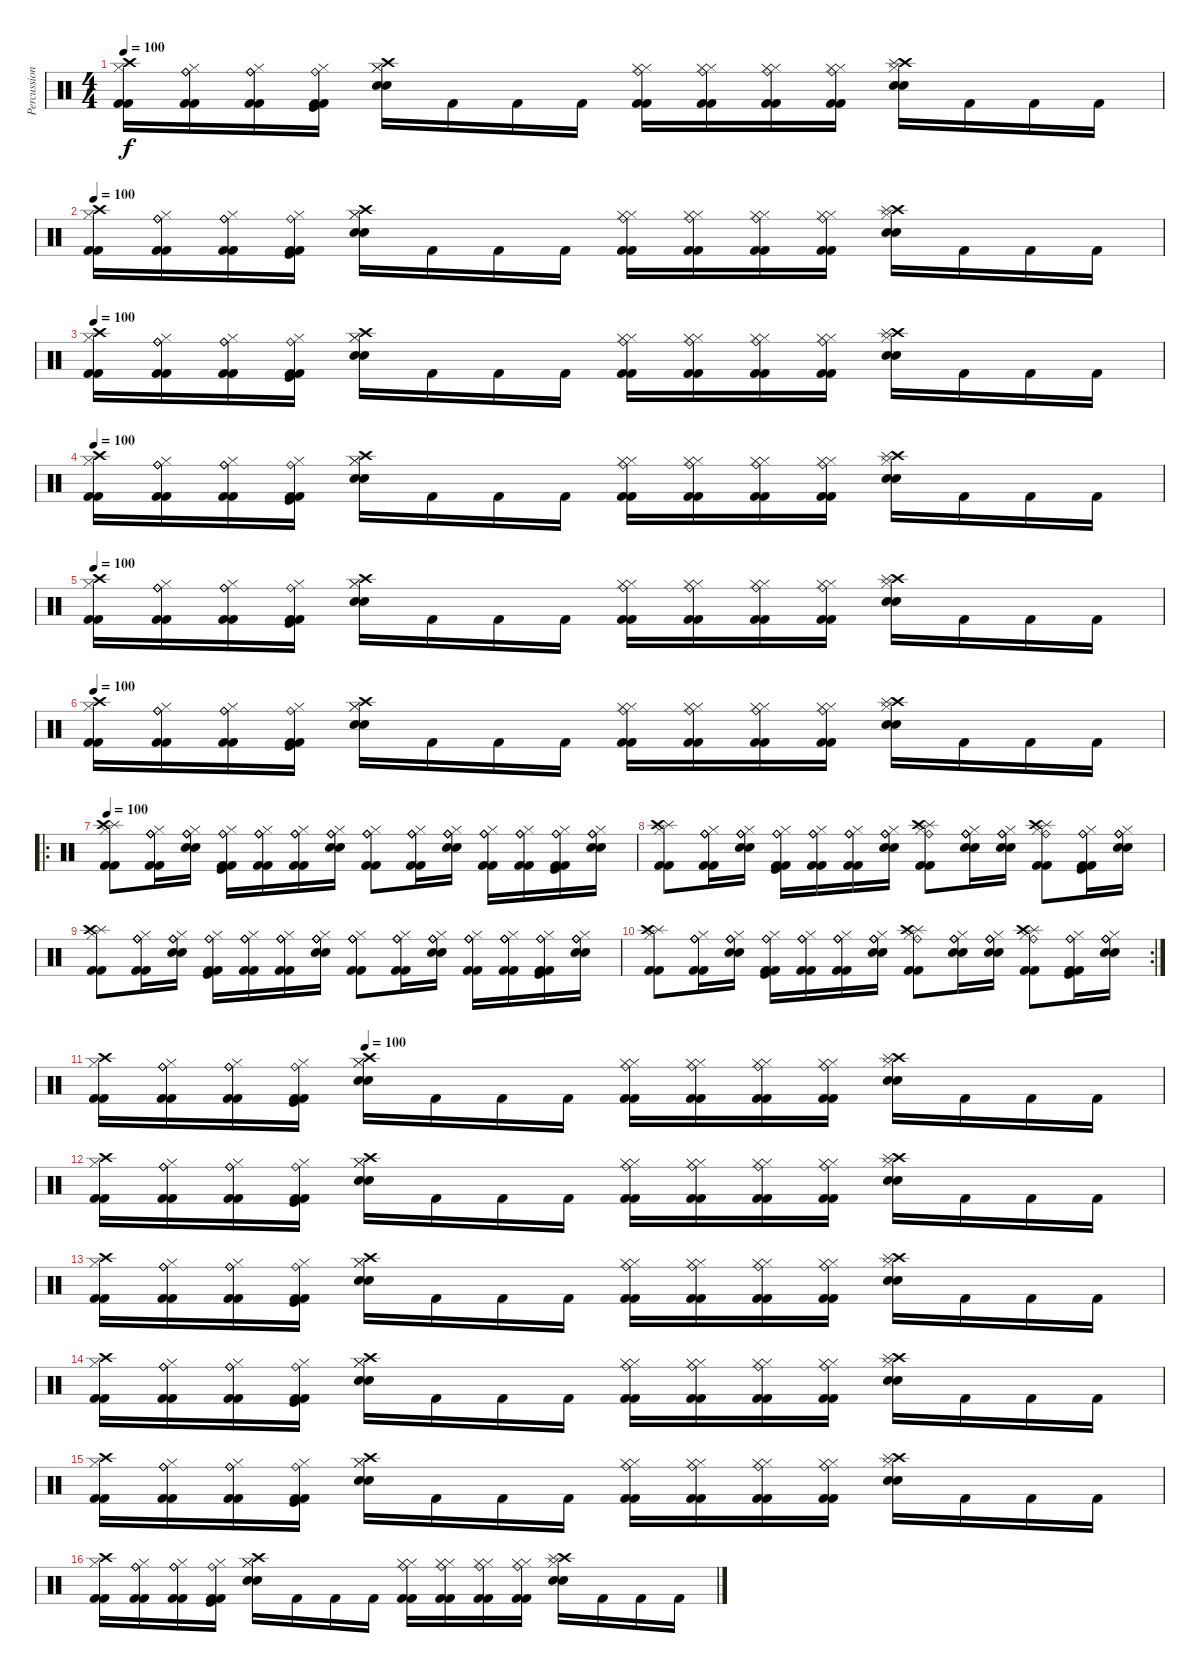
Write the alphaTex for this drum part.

\track ("Percussion" "Percussion") {instrument percussion}
\staff {score}
\articulation defaults
\ts (4 4)
\tempo 100
\clef neutral
\ks c
("Crash high (hit)" "Hi-Hat (closed)" "Kick (hit) 2" "Kick (hit) 2").16{dy f} ("Ride (bell)" "Ride (bell)" "Hi-Hat (closed)" "Kick (hit) 2" "Kick (hit) 2").16 ("Ride (bell)" "Ride (bell)" "Hi-Hat (closed)" "Kick (hit) 2" "Kick (hit) 2").16 ("Ride (bell)" "Kick (hit)" "Hi-Hat (closed)" "Kick (hit) 2" "Kick (hit) 2").16 ("Crash high (hit)" "Hi-Hat (closed)" "Hi-Hat (closed)" "Snare (hit) 2" "Snare (hit) 2").16 "Kick (hit) 2".16 "Kick (hit) 2".16 "Kick (hit) 2".16 ("Ride (bell)" "Hi-Hat (closed)" "Hi-Hat (closed)" "Kick (hit) 2" "Kick (hit) 2").16 ("Ride (bell)" "Hi-Hat (closed)" "Hi-Hat (closed)" "Kick (hit) 2" "Kick (hit) 2").16 ("Ride (bell)" "Hi-Hat (closed)" "Hi-Hat (closed)" "Kick (hit) 2" "Kick (hit) 2").16 ("Ride (bell)" "Hi-Hat (closed)" "Hi-Hat (closed)" "Kick (hit) 2" "Kick (hit) 2").16 ("Crash high (hit)" "Splash (hit)" "Hi-Hat (closed)" "Snare (hit) 2" "Snare (hit) 2").16 "Kick (hit) 2".16 "Kick (hit) 2".16 "Kick (hit) 2".16 |
\tempo 100
("Crash high (hit)" "Hi-Hat (closed)" "Kick (hit) 2" "Kick (hit) 2").16 ("Ride (bell)" "Ride (bell)" "Hi-Hat (closed)" "Kick (hit) 2" "Kick (hit) 2").16 ("Ride (bell)" "Ride (bell)" "Hi-Hat (closed)" "Kick (hit) 2" "Kick (hit) 2").16 ("Ride (bell)" "Kick (hit)" "Hi-Hat (closed)" "Kick (hit) 2" "Kick (hit) 2").16 ("Crash high (hit)" "Hi-Hat (closed)" "Hi-Hat (closed)" "Snare (hit) 2" "Snare (hit) 2").16 "Kick (hit) 2".16 "Kick (hit) 2".16 "Kick (hit) 2".16 ("Ride (bell)" "Hi-Hat (closed)" "Hi-Hat (closed)" "Kick (hit) 2" "Kick (hit) 2").16 ("Ride (bell)" "Hi-Hat (closed)" "Hi-Hat (closed)" "Kick (hit) 2" "Kick (hit) 2").16 ("Ride (bell)" "Hi-Hat (closed)" "Hi-Hat (closed)" "Kick (hit) 2" "Kick (hit) 2").16 ("Ride (bell)" "Hi-Hat (closed)" "Hi-Hat (closed)" "Kick (hit) 2" "Kick (hit) 2").16 ("Crash high (hit)" "Splash (hit)" "Hi-Hat (closed)" "Snare (hit) 2" "Snare (hit) 2").16 "Kick (hit) 2".16 "Kick (hit) 2".16 "Kick (hit) 2".16 |
\tempo 100
("Crash high (hit)" "Hi-Hat (closed)" "Kick (hit) 2" "Kick (hit) 2").16 ("Ride (bell)" "Ride (bell)" "Hi-Hat (closed)" "Kick (hit) 2" "Kick (hit) 2").16 ("Ride (bell)" "Ride (bell)" "Hi-Hat (closed)" "Kick (hit) 2" "Kick (hit) 2").16 ("Ride (bell)" "Kick (hit)" "Hi-Hat (closed)" "Kick (hit) 2" "Kick (hit) 2").16 ("Crash high (hit)" "Hi-Hat (closed)" "Hi-Hat (closed)" "Snare (hit) 2" "Snare (hit) 2").16 "Kick (hit) 2".16 "Kick (hit) 2".16 "Kick (hit) 2".16 ("Ride (bell)" "Hi-Hat (closed)" "Hi-Hat (closed)" "Kick (hit) 2" "Kick (hit) 2").16 ("Ride (bell)" "Hi-Hat (closed)" "Hi-Hat (closed)" "Kick (hit) 2" "Kick (hit) 2").16 ("Ride (bell)" "Hi-Hat (closed)" "Hi-Hat (closed)" "Kick (hit) 2" "Kick (hit) 2").16 ("Ride (bell)" "Hi-Hat (closed)" "Hi-Hat (closed)" "Kick (hit) 2" "Kick (hit) 2").16 ("Crash high (hit)" "Splash (hit)" "Hi-Hat (closed)" "Snare (hit) 2" "Snare (hit) 2").16 "Kick (hit) 2".16 "Kick (hit) 2".16 "Kick (hit) 2".16 |
\tempo 100
("Crash high (hit)" "Hi-Hat (closed)" "Kick (hit) 2" "Kick (hit) 2").16 ("Ride (bell)" "Ride (bell)" "Hi-Hat (closed)" "Kick (hit) 2" "Kick (hit) 2").16 ("Ride (bell)" "Ride (bell)" "Hi-Hat (closed)" "Kick (hit) 2" "Kick (hit) 2").16 ("Ride (bell)" "Kick (hit)" "Hi-Hat (closed)" "Kick (hit) 2" "Kick (hit) 2").16 ("Crash high (hit)" "Hi-Hat (closed)" "Hi-Hat (closed)" "Snare (hit) 2" "Snare (hit) 2").16 "Kick (hit) 2".16 "Kick (hit) 2".16 "Kick (hit) 2".16 ("Ride (bell)" "Hi-Hat (closed)" "Hi-Hat (closed)" "Kick (hit) 2" "Kick (hit) 2").16 ("Ride (bell)" "Hi-Hat (closed)" "Hi-Hat (closed)" "Kick (hit) 2" "Kick (hit) 2").16 ("Ride (bell)" "Hi-Hat (closed)" "Hi-Hat (closed)" "Kick (hit) 2" "Kick (hit) 2").16 ("Ride (bell)" "Hi-Hat (closed)" "Hi-Hat (closed)" "Kick (hit) 2" "Kick (hit) 2").16 ("Crash high (hit)" "Splash (hit)" "Hi-Hat (closed)" "Snare (hit) 2" "Snare (hit) 2").16 "Kick (hit) 2".16 "Kick (hit) 2".16 "Kick (hit) 2".16 |
\tempo 100
("Crash high (hit)" "Hi-Hat (closed)" "Kick (hit) 2" "Kick (hit) 2").16 ("Ride (bell)" "Ride (bell)" "Hi-Hat (closed)" "Kick (hit) 2" "Kick (hit) 2").16 ("Ride (bell)" "Ride (bell)" "Hi-Hat (closed)" "Kick (hit) 2" "Kick (hit) 2").16 ("Ride (bell)" "Kick (hit)" "Hi-Hat (closed)" "Kick (hit) 2" "Kick (hit) 2").16 ("Crash high (hit)" "Hi-Hat (closed)" "Hi-Hat (closed)" "Snare (hit) 2" "Snare (hit) 2").16 "Kick (hit) 2".16 "Kick (hit) 2".16 "Kick (hit) 2".16 ("Ride (bell)" "Hi-Hat (closed)" "Hi-Hat (closed)" "Kick (hit) 2" "Kick (hit) 2").16 ("Ride (bell)" "Hi-Hat (closed)" "Hi-Hat (closed)" "Kick (hit) 2" "Kick (hit) 2").16 ("Ride (bell)" "Hi-Hat (closed)" "Hi-Hat (closed)" "Kick (hit) 2" "Kick (hit) 2").16 ("Ride (bell)" "Hi-Hat (closed)" "Hi-Hat (closed)" "Kick (hit) 2" "Kick (hit) 2").16 ("Crash high (hit)" "Splash (hit)" "Hi-Hat (closed)" "Snare (hit) 2" "Snare (hit) 2").16 "Kick (hit) 2".16 "Kick (hit) 2".16 "Kick (hit) 2".16 |
\tempo 100
("Crash high (hit)" "Hi-Hat (closed)" "Kick (hit) 2" "Kick (hit) 2").16 ("Ride (bell)" "Ride (bell)" "Hi-Hat (closed)" "Kick (hit) 2" "Kick (hit) 2").16 ("Ride (bell)" "Ride (bell)" "Hi-Hat (closed)" "Kick (hit) 2" "Kick (hit) 2").16 ("Ride (bell)" "Kick (hit)" "Hi-Hat (closed)" "Kick (hit) 2" "Kick (hit) 2").16 ("Crash high (hit)" "Hi-Hat (closed)" "Hi-Hat (closed)" "Snare (hit) 2" "Snare (hit) 2").16 "Kick (hit) 2".16 "Kick (hit) 2".16 "Kick (hit) 2".16 ("Ride (bell)" "Hi-Hat (closed)" "Hi-Hat (closed)" "Kick (hit) 2" "Kick (hit) 2").16 ("Ride (bell)" "Hi-Hat (closed)" "Hi-Hat (closed)" "Kick (hit) 2" "Kick (hit) 2").16 ("Ride (bell)" "Hi-Hat (closed)" "Hi-Hat (closed)" "Kick (hit) 2" "Kick (hit) 2").16 ("Ride (bell)" "Hi-Hat (closed)" "Hi-Hat (closed)" "Kick (hit) 2" "Kick (hit) 2").16 ("Crash high (hit)" "Splash (hit)" "Hi-Hat (closed)" "Snare (hit) 2" "Snare (hit) 2").16 "Kick (hit) 2".16 "Kick (hit) 2".16 "Kick (hit) 2".16 |
\ro
\tempo 100
("Splash (hit)" "Crash high (hit)" "Hi-Hat (closed)" "Kick (hit) 2" "Kick (hit) 2").8 ("Ride (bell)" "Ride (bell)" "Ride (bell)" "Hi-Hat (closed)" "Kick (hit) 2" "Kick (hit) 2").16 ("Ride (bell)" "Ride (bell)" "Ride (bell)" "Hi-Hat (closed)" "Snare (hit) 2" "Snare (hit) 2").16 ("Ride (bell)" "Ride (bell)" "Kick (hit)" "Hi-Hat (closed)" "Kick (hit) 2" "Kick (hit) 2").16 ("Ride (bell)" "Ride (bell)" "Ride (bell)" "Hi-Hat (closed)" "Kick (hit) 2" "Kick (hit) 2").16 ("Ride (bell)" "Ride (bell)" "Ride (bell)" "Hi-Hat (closed)" "Kick (hit) 2" "Kick (hit) 2").16 ("Ride (bell)" "Ride (bell)" "Ride (bell)" "Hi-Hat (closed)" "Snare (hit) 2" "Snare (hit) 2").16 ("Ride (bell)" "Ride (bell)" "Ride (bell)" "Hi-Hat (closed)" "Kick (hit) 2" "Kick (hit) 2").8 ("Ride (bell)" "Ride (bell)" "Ride (bell)" "Hi-Hat (closed)" "Kick (hit) 2" "Kick (hit) 2").16 ("Ride (bell)" "Ride (bell)" "Ride (bell)" "Hi-Hat (closed)" "Snare (hit) 2" "Snare (hit) 2").16 ("Ride (bell)" "Ride (bell)" "Ride (bell)" "Hi-Hat (closed)" "Kick (hit) 2" "Kick (hit) 2").16 ("Ride (bell)" "Ride (bell)" "Ride (bell)" "Hi-Hat (closed)" "Kick (hit) 2" "Kick (hit) 2").16 ("Kick (hit)" "Ride (bell)" "Ride (bell)" "Hi-Hat (closed)" "Kick (hit) 2" "Kick (hit) 2").16 ("Ride (bell)" "Ride (bell)" "Ride (bell)" "Hi-Hat (closed)" "Snare (hit) 2" "Snare (hit) 2").16 |
("Splash (hit)" "Crash high (hit)" "Hi-Hat (closed)" "Kick (hit) 2" "Kick (hit) 2").8 ("Ride (bell)" "Ride (bell)" "Ride (bell)" "Hi-Hat (closed)" "Kick (hit) 2" "Kick (hit) 2").16 ("Ride (bell)" "Ride (bell)" "Ride (bell)" "Hi-Hat (closed)" "Snare (hit) 2" "Snare (hit) 2").16 ("Ride (bell)" "Ride (bell)" "Kick (hit)" "Hi-Hat (closed)" "Kick (hit) 2" "Kick (hit) 2").16 ("Ride (bell)" "Ride (bell)" "Ride (bell)" "Hi-Hat (closed)" "Kick (hit) 2" "Kick (hit) 2").16 ("Ride (bell)" "Ride (bell)" "Ride (bell)" "Hi-Hat (closed)" "Kick (hit) 2" "Kick (hit) 2").16 ("Ride (bell)" "Ride (bell)" "Ride (bell)" "Hi-Hat (closed)" "Snare (hit) 2" "Snare (hit) 2").16 ("Splash (hit)" "Ride (bell)" "Crash high (hit)" "Hi-Hat (closed)" "Kick (hit) 2" "Kick (hit) 2").8 ("Ride (bell)" "Ride (bell)" "Ride (bell)" "Hi-Hat (closed)" "Snare (hit) 2" "Snare (hit) 2").16 ("Ride (bell)" "Ride (bell)" "Ride (bell)" "Hi-Hat (closed)" "Snare (hit) 2" "Snare (hit) 2").16 ("Splash (hit)" "Ride (bell)" "Crash high (hit)" "Hi-Hat (closed)" "Kick (hit) 2" "Kick (hit) 2").8 ("Kick (hit)" "Ride (bell)" "Ride (bell)" "Hi-Hat (closed)" "Kick (hit) 2" "Kick (hit) 2").16 ("Ride (bell)" "Ride (bell)" "Ride (bell)" "Hi-Hat (closed)" "Snare (hit) 2" "Snare (hit) 2").16 |
("Splash (hit)" "Crash high (hit)" "Hi-Hat (closed)" "Kick (hit) 2" "Kick (hit) 2").8 ("Ride (bell)" "Ride (bell)" "Ride (bell)" "Hi-Hat (closed)" "Kick (hit) 2" "Kick (hit) 2").16 ("Ride (bell)" "Ride (bell)" "Ride (bell)" "Hi-Hat (closed)" "Snare (hit) 2" "Snare (hit) 2").16 ("Ride (bell)" "Ride (bell)" "Kick (hit)" "Hi-Hat (closed)" "Kick (hit) 2" "Kick (hit) 2").16 ("Ride (bell)" "Ride (bell)" "Ride (bell)" "Hi-Hat (closed)" "Kick (hit) 2" "Kick (hit) 2").16 ("Ride (bell)" "Ride (bell)" "Ride (bell)" "Hi-Hat (closed)" "Kick (hit) 2" "Kick (hit) 2").16 ("Ride (bell)" "Ride (bell)" "Ride (bell)" "Hi-Hat (closed)" "Snare (hit) 2" "Snare (hit) 2").16 ("Ride (bell)" "Ride (bell)" "Ride (bell)" "Hi-Hat (closed)" "Kick (hit) 2" "Kick (hit) 2").8 ("Ride (bell)" "Ride (bell)" "Ride (bell)" "Hi-Hat (closed)" "Kick (hit) 2" "Kick (hit) 2").16 ("Ride (bell)" "Ride (bell)" "Ride (bell)" "Hi-Hat (closed)" "Snare (hit) 2" "Snare (hit) 2").16 ("Ride (bell)" "Ride (bell)" "Ride (bell)" "Hi-Hat (closed)" "Kick (hit) 2" "Kick (hit) 2").16 ("Ride (bell)" "Ride (bell)" "Ride (bell)" "Hi-Hat (closed)" "Kick (hit) 2" "Kick (hit) 2").16 ("Kick (hit)" "Ride (bell)" "Ride (bell)" "Hi-Hat (closed)" "Kick (hit) 2" "Kick (hit) 2").16 ("Ride (bell)" "Ride (bell)" "Ride (bell)" "Hi-Hat (closed)" "Snare (hit) 2" "Snare (hit) 2").16 |
\rc 2
("Splash (hit)" "Crash high (hit)" "Hi-Hat (closed)" "Kick (hit) 2" "Kick (hit) 2").8 ("Ride (bell)" "Ride (bell)" "Ride (bell)" "Hi-Hat (closed)" "Kick (hit) 2" "Kick (hit) 2").16 ("Ride (bell)" "Ride (bell)" "Ride (bell)" "Hi-Hat (closed)" "Snare (hit) 2" "Snare (hit) 2").16 ("Ride (bell)" "Ride (bell)" "Kick (hit)" "Hi-Hat (closed)" "Kick (hit) 2" "Kick (hit) 2").16 ("Ride (bell)" "Ride (bell)" "Ride (bell)" "Hi-Hat (closed)" "Kick (hit) 2" "Kick (hit) 2").16 ("Ride (bell)" "Ride (bell)" "Ride (bell)" "Hi-Hat (closed)" "Kick (hit) 2" "Kick (hit) 2").16 ("Ride (bell)" "Ride (bell)" "Ride (bell)" "Hi-Hat (closed)" "Snare (hit) 2" "Snare (hit) 2").16 ("Splash (hit)" "Ride (bell)" "Crash high (hit)" "Hi-Hat (closed)" "Kick (hit) 2" "Kick (hit) 2").8 ("Ride (bell)" "Ride (bell)" "Ride (bell)" "Hi-Hat (closed)" "Snare (hit) 2" "Snare (hit) 2").16 ("Ride (bell)" "Ride (bell)" "Ride (bell)" "Hi-Hat (closed)" "Snare (hit) 2" "Snare (hit) 2").16 ("Splash (hit)" "Ride (bell)" "Crash high (hit)" "Hi-Hat (closed)" "Kick (hit) 2" "Kick (hit) 2").8 ("Kick (hit)" "Ride (bell)" "Ride (bell)" "Hi-Hat (closed)" "Kick (hit) 2" "Kick (hit) 2").16 ("Ride (bell)" "Ride (bell)" "Ride (bell)" "Hi-Hat (closed)" "Snare (hit) 2" "Snare (hit) 2").16 |
\tempo (100 0.25)
("Crash high (hit)" "Hi-Hat (closed)" "Kick (hit) 2" "Kick (hit) 2").16 ("Ride (bell)" "Ride (bell)" "Hi-Hat (closed)" "Kick (hit) 2" "Kick (hit) 2").16 ("Ride (bell)" "Ride (bell)" "Hi-Hat (closed)" "Kick (hit) 2" "Kick (hit) 2").16 ("Ride (bell)" "Kick (hit)" "Hi-Hat (closed)" "Kick (hit) 2" "Kick (hit) 2").16 ("Crash high (hit)" "Hi-Hat (closed)" "Hi-Hat (closed)" "Snare (hit) 2" "Snare (hit) 2").16 "Kick (hit) 2".16 "Kick (hit) 2".16 "Kick (hit) 2".16 ("Ride (bell)" "Hi-Hat (closed)" "Hi-Hat (closed)" "Kick (hit) 2" "Kick (hit) 2").16 ("Ride (bell)" "Hi-Hat (closed)" "Hi-Hat (closed)" "Kick (hit) 2" "Kick (hit) 2").16 ("Ride (bell)" "Hi-Hat (closed)" "Hi-Hat (closed)" "Kick (hit) 2" "Kick (hit) 2").16 ("Ride (bell)" "Hi-Hat (closed)" "Hi-Hat (closed)" "Kick (hit) 2" "Kick (hit) 2").16 ("Crash high (hit)" "Splash (hit)" "Hi-Hat (closed)" "Snare (hit) 2" "Snare (hit) 2").16 "Kick (hit) 2".16 "Kick (hit) 2".16 "Kick (hit) 2".16 |
("Crash high (hit)" "Hi-Hat (closed)" "Kick (hit) 2" "Kick (hit) 2").16 ("Ride (bell)" "Ride (bell)" "Hi-Hat (closed)" "Kick (hit) 2" "Kick (hit) 2").16 ("Ride (bell)" "Ride (bell)" "Hi-Hat (closed)" "Kick (hit) 2" "Kick (hit) 2").16 ("Ride (bell)" "Kick (hit)" "Hi-Hat (closed)" "Kick (hit) 2" "Kick (hit) 2").16 ("Crash high (hit)" "Hi-Hat (closed)" "Hi-Hat (closed)" "Snare (hit) 2" "Snare (hit) 2").16 "Kick (hit) 2".16 "Kick (hit) 2".16 "Kick (hit) 2".16 ("Ride (bell)" "Hi-Hat (closed)" "Hi-Hat (closed)" "Kick (hit) 2" "Kick (hit) 2").16 ("Ride (bell)" "Hi-Hat (closed)" "Hi-Hat (closed)" "Kick (hit) 2" "Kick (hit) 2").16 ("Ride (bell)" "Hi-Hat (closed)" "Hi-Hat (closed)" "Kick (hit) 2" "Kick (hit) 2").16 ("Ride (bell)" "Hi-Hat (closed)" "Hi-Hat (closed)" "Kick (hit) 2" "Kick (hit) 2").16 ("Crash high (hit)" "Splash (hit)" "Hi-Hat (closed)" "Snare (hit) 2" "Snare (hit) 2").16 "Kick (hit) 2".16 "Kick (hit) 2".16 "Kick (hit) 2".16 |
("Crash high (hit)" "Hi-Hat (closed)" "Kick (hit) 2" "Kick (hit) 2").16 ("Ride (bell)" "Ride (bell)" "Hi-Hat (closed)" "Kick (hit) 2" "Kick (hit) 2").16 ("Ride (bell)" "Ride (bell)" "Hi-Hat (closed)" "Kick (hit) 2" "Kick (hit) 2").16 ("Ride (bell)" "Kick (hit)" "Hi-Hat (closed)" "Kick (hit) 2" "Kick (hit) 2").16 ("Crash high (hit)" "Hi-Hat (closed)" "Hi-Hat (closed)" "Snare (hit) 2" "Snare (hit) 2").16 "Kick (hit) 2".16 "Kick (hit) 2".16 "Kick (hit) 2".16 ("Ride (bell)" "Hi-Hat (closed)" "Hi-Hat (closed)" "Kick (hit) 2" "Kick (hit) 2").16 ("Ride (bell)" "Hi-Hat (closed)" "Hi-Hat (closed)" "Kick (hit) 2" "Kick (hit) 2").16 ("Ride (bell)" "Hi-Hat (closed)" "Hi-Hat (closed)" "Kick (hit) 2" "Kick (hit) 2").16 ("Ride (bell)" "Hi-Hat (closed)" "Hi-Hat (closed)" "Kick (hit) 2" "Kick (hit) 2").16 ("Crash high (hit)" "Splash (hit)" "Hi-Hat (closed)" "Snare (hit) 2" "Snare (hit) 2").16 "Kick (hit) 2".16 "Kick (hit) 2".16 "Kick (hit) 2".16 |
("Crash high (hit)" "Hi-Hat (closed)" "Kick (hit) 2" "Kick (hit) 2").16 ("Ride (bell)" "Ride (bell)" "Hi-Hat (closed)" "Kick (hit) 2" "Kick (hit) 2").16 ("Ride (bell)" "Ride (bell)" "Hi-Hat (closed)" "Kick (hit) 2" "Kick (hit) 2").16 ("Ride (bell)" "Kick (hit)" "Hi-Hat (closed)" "Kick (hit) 2" "Kick (hit) 2").16 ("Crash high (hit)" "Hi-Hat (closed)" "Hi-Hat (closed)" "Snare (hit) 2" "Snare (hit) 2").16 "Kick (hit) 2".16 "Kick (hit) 2".16 "Kick (hit) 2".16 ("Ride (bell)" "Hi-Hat (closed)" "Hi-Hat (closed)" "Kick (hit) 2" "Kick (hit) 2").16 ("Ride (bell)" "Hi-Hat (closed)" "Hi-Hat (closed)" "Kick (hit) 2" "Kick (hit) 2").16 ("Ride (bell)" "Hi-Hat (closed)" "Hi-Hat (closed)" "Kick (hit) 2" "Kick (hit) 2").16 ("Ride (bell)" "Hi-Hat (closed)" "Hi-Hat (closed)" "Kick (hit) 2" "Kick (hit) 2").16 ("Crash high (hit)" "Splash (hit)" "Hi-Hat (closed)" "Snare (hit) 2" "Snare (hit) 2").16 "Kick (hit) 2".16 "Kick (hit) 2".16 "Kick (hit) 2".16 |
("Crash high (hit)" "Hi-Hat (closed)" "Kick (hit) 2" "Kick (hit) 2").16 ("Ride (bell)" "Ride (bell)" "Hi-Hat (closed)" "Kick (hit) 2" "Kick (hit) 2").16 ("Ride (bell)" "Ride (bell)" "Hi-Hat (closed)" "Kick (hit) 2" "Kick (hit) 2").16 ("Ride (bell)" "Kick (hit)" "Hi-Hat (closed)" "Kick (hit) 2" "Kick (hit) 2").16 ("Crash high (hit)" "Hi-Hat (closed)" "Hi-Hat (closed)" "Snare (hit) 2" "Snare (hit) 2").16 "Kick (hit) 2".16 "Kick (hit) 2".16 "Kick (hit) 2".16 ("Ride (bell)" "Hi-Hat (closed)" "Hi-Hat (closed)" "Kick (hit) 2" "Kick (hit) 2").16 ("Ride (bell)" "Hi-Hat (closed)" "Hi-Hat (closed)" "Kick (hit) 2" "Kick (hit) 2").16 ("Ride (bell)" "Hi-Hat (closed)" "Hi-Hat (closed)" "Kick (hit) 2" "Kick (hit) 2").16 ("Ride (bell)" "Hi-Hat (closed)" "Hi-Hat (closed)" "Kick (hit) 2" "Kick (hit) 2").16 ("Crash high (hit)" "Splash (hit)" "Hi-Hat (closed)" "Snare (hit) 2" "Snare (hit) 2").16 "Kick (hit) 2".16 "Kick (hit) 2".16 "Kick (hit) 2".16 |
("Crash high (hit)" "Hi-Hat (closed)" "Kick (hit) 2" "Kick (hit) 2").16 ("Ride (bell)" "Ride (bell)" "Hi-Hat (closed)" "Kick (hit) 2" "Kick (hit) 2").16 ("Ride (bell)" "Ride (bell)" "Hi-Hat (closed)" "Kick (hit) 2" "Kick (hit) 2").16 ("Ride (bell)" "Kick (hit)" "Hi-Hat (closed)" "Kick (hit) 2" "Kick (hit) 2").16 ("Crash high (hit)" "Hi-Hat (closed)" "Hi-Hat (closed)" "Snare (hit) 2" "Snare (hit) 2").16 "Kick (hit) 2".16 "Kick (hit) 2".16 "Kick (hit) 2".16 ("Ride (bell)" "Hi-Hat (closed)" "Hi-Hat (closed)" "Kick (hit) 2" "Kick (hit) 2").16 ("Ride (bell)" "Hi-Hat (closed)" "Hi-Hat (closed)" "Kick (hit) 2" "Kick (hit) 2").16 ("Ride (bell)" "Hi-Hat (closed)" "Hi-Hat (closed)" "Kick (hit) 2" "Kick (hit) 2").16 ("Ride (bell)" "Hi-Hat (closed)" "Hi-Hat (closed)" "Kick (hit) 2" "Kick (hit) 2").16 ("Crash high (hit)" "Splash (hit)" "Hi-Hat (closed)" "Snare (hit) 2" "Snare (hit) 2").16 "Kick (hit) 2".16 "Kick (hit) 2".16 "Kick (hit) 2".16
